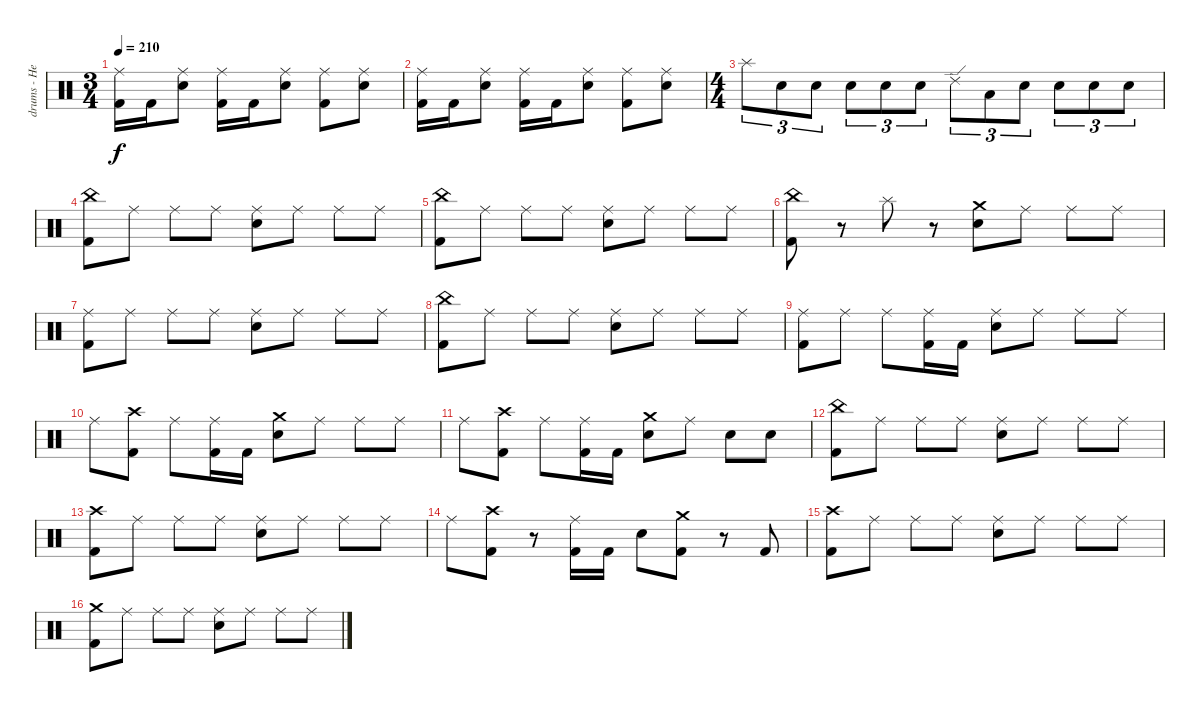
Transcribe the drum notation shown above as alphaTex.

\track ("drums - Heikki" "drums - He") {instrument percussion}
\staff {score}
\articulation defaults
\ts (3 4)
\tempo 210
\clef neutral
\ks c
("Ride (middle)" "Kick (hit) 2").16{dy f} "Kick (hit) 2".16 ("Ride (middle)" "Snare (hit) 2").8 ("Ride (middle)" "Kick (hit) 2").16 "Kick (hit) 2".16 ("Ride (middle)" "Snare (hit) 2").8 ("Ride (middle)" "Kick (hit) 2").8 ("Ride (middle)" "Snare (hit) 2").8 |
("Ride (middle)" "Kick (hit) 2").16 "Kick (hit) 2".16 ("Ride (middle)" "Snare (hit) 2").8 ("Ride (middle)" "Kick (hit) 2").16 "Kick (hit) 2".16 ("Ride (middle)" "Snare (hit) 2").8 ("Ride (middle)" "Kick (hit) 2").8 ("Ride (middle)" "Snare (hit) 2").8 |
\ts (4 4)
"Splash (hit)".8{tu (3 2)} "Snare (hit) 2".8{tu (3 2)} "Snare (hit) 2".8{tu (3 2)} "Snare (hit) 2".8{tu (3 2)} "Snare (hit) 2".8{tu (3 2)} "Snare (hit) 2".8{tu (3 2)} "Ride (edge) 2".8{tu (3 2)} "Low Tom (hit)".8{tu (3 2)} "Snare (hit) 2".8{tu (3 2)} "Snare (hit) 2".8{tu (3 2)} "Snare (hit) 2".8{tu (3 2)} "Snare (hit) 2".8{tu (3 2)} |
("China (hit)" "Kick (hit) 2").8 "Ride (middle)".8 "Ride (middle)".8 "Ride (middle)".8 ("Ride (middle)" "Snare (hit) 2").8 "Ride (middle)".8 "Ride (middle)".8 "Ride (middle)".8 |
("China (hit)" "Kick (hit) 2").8 "Ride (middle)".8 "Ride (middle)".8 "Ride (middle)".8 ("Ride (middle)" "Snare (hit) 2").8 "Ride (middle)".8 "Ride (middle)".8 "Ride (middle)".8 |
("China (hit)" "Kick (hit) 2").8 r.8 "Splash (hit)".8 r.8 ("Crash medium (hit)" "Snare (hit) 2").8 "Ride (middle)".8 "Ride (middle)".8 "Ride (middle)".8 |
("Ride (middle)" "Kick (hit) 2").8 "Ride (middle)".8 "Ride (middle)".8 "Ride (middle)".8 ("Ride (middle)" "Snare (hit) 2").8 "Ride (middle)".8 "Ride (middle)".8 "Ride (middle)".8 |
("China (hit)" "Kick (hit) 2").8 "Ride (middle)".8 "Ride (middle)".8 "Ride (middle)".8 ("Ride (middle)" "Snare (hit) 2").8 "Ride (middle)".8 "Ride (middle)".8 "Ride (middle)".8 |
("Ride (middle)" "Kick (hit) 2").8 "Ride (middle)".8 "Ride (middle)".8 ("Ride (middle)" "Kick (hit) 2").16 "Kick (hit) 2".16 ("Ride (middle)" "Snare (hit) 2").8 "Ride (middle)".8 "Ride (middle)".8 "Ride (middle)".8 |
"Ride (middle)".8 ("Crash high (hit)" "Kick (hit) 2").8 "Ride (middle)".8 ("Ride (middle)" "Kick (hit) 2").16 "Kick (hit) 2".16 ("Crash medium (hit)" "Snare (hit) 2").8 "Ride (middle)".8 "Ride (middle)".8 "Ride (middle)".8 |
"Ride (middle)".8 ("Crash high (hit)" "Kick (hit) 2").8 "Ride (middle)".8 ("Ride (middle)" "Kick (hit) 2").16 "Kick (hit) 2".16 ("Crash medium (hit)" "Snare (hit) 2").8 "Ride (middle)".8 "Snare (hit) 2".8 "Snare (hit) 2".8 |
("China (hit)" "Kick (hit) 2").8 "Ride (middle)".8 "Ride (middle)".8 "Ride (middle)".8 ("Ride (middle)" "Snare (hit) 2").8 "Ride (middle)".8 "Ride (middle)".8 "Ride (middle)".8 |
("Crash high (hit)" "Kick (hit) 2").8 "Ride (middle)".8 "Ride (middle)".8 "Ride (middle)".8 ("Ride (middle)" "Snare (hit) 2").8 "Ride (middle)".8 "Ride (middle)".8 "Ride (middle)".8 |
"Ride (middle)".8 ("Crash high (hit)" "Kick (hit) 2").8 r.8 ("Ride (middle)" "Kick (hit) 2").16 "Kick (hit) 2".16 "Snare (hit) 2".8 ("Crash medium (hit)" "Kick (hit) 2").8 r.8 "Kick (hit) 2".8 |
("Crash high (hit)" "Kick (hit) 2").8 "Ride (middle)".8 "Ride (middle)".8 "Ride (middle)".8 ("Ride (middle)" "Snare (hit) 2").8 "Ride (middle)".8 "Ride (middle)".8 "Ride (middle)".8 |
("Crash medium (hit)" "Kick (hit) 2").8 "Ride (middle)".8 "Ride (middle)".8 "Ride (middle)".8 ("Ride (middle)" "Snare (hit) 2").8 "Ride (middle)".8 "Ride (middle)".8 "Ride (middle)".8
